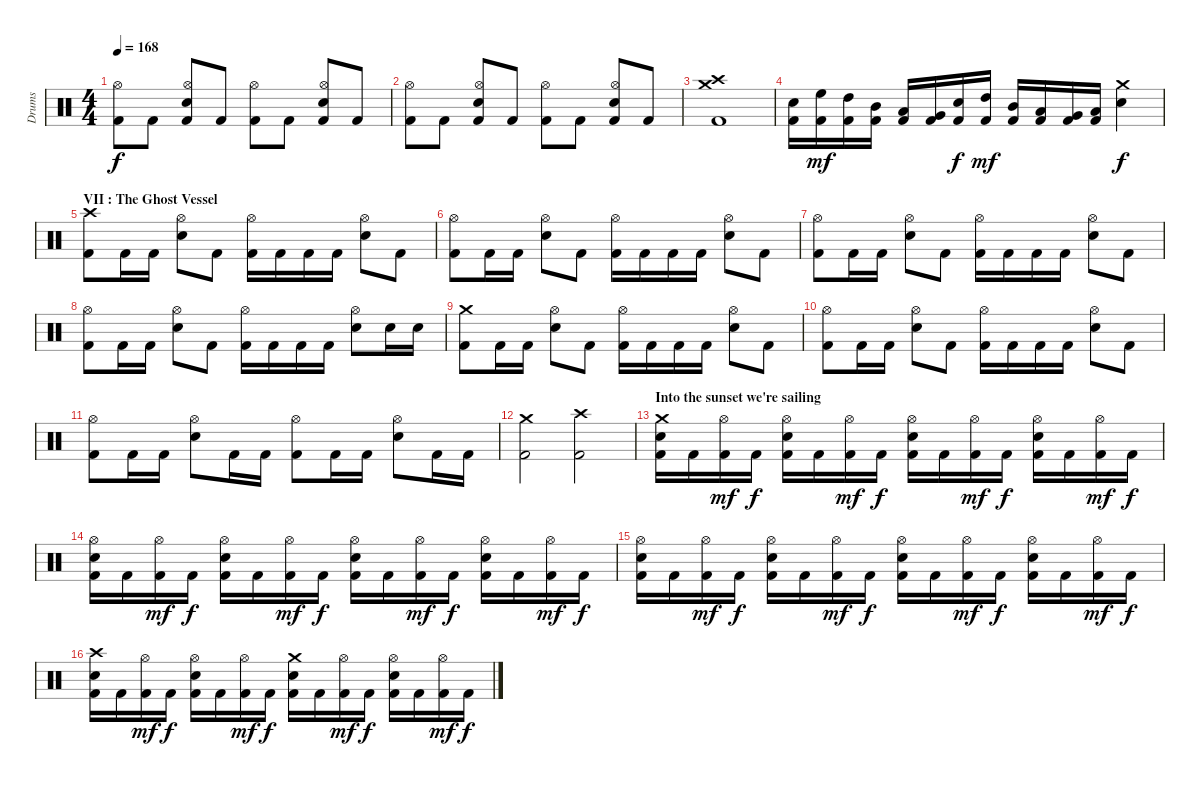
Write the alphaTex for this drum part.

\track ("Drums" "Drums") {instrument percussion}
\staff {score}
\articulation defaults
\ts (4 4)
\tempo 168
\clef neutral
\ks c
("Kick (hit) 2" "Hi-Hat (open)").8{dy f} "Kick (hit) 2".8 ("Kick (hit) 2" "Electric Snare (hit)" "Hi-Hat (open)").8 "Kick (hit) 2".8 ("Kick (hit) 2" "Hi-Hat (open)").8 "Kick (hit) 2".8 ("Kick (hit) 2" "Electric Snare (hit)" "Hi-Hat (open)").8 "Kick (hit) 2".8 |
("Kick (hit) 2" "Hi-Hat (open)").8 "Kick (hit) 2".8 ("Kick (hit) 2" "Electric Snare (hit)" "Hi-Hat (open)").8 "Kick (hit) 2".8 ("Kick (hit) 2" "Hi-Hat (open)").8 "Kick (hit) 2".8 ("Kick (hit) 2" "Electric Snare (hit)" "Hi-Hat (open)").8 "Kick (hit) 2".8 |
("Kick (hit) 2" "Crash medium (hit)" "Crash high (hit)").1 |
("Kick (hit) 2" "Electric Snare (hit)").16 ("Kick (hit) 2" "High Floor Tom (hit)").16{dy mf} ("Kick (hit) 2" "High Tom (hit)").16 ("Kick (hit) 2" "Mid Tom (hit)").16 ("Kick (hit) 2" "Low Tom (hit)").16 ("Kick (hit) 2" "Very Low Tom (hit)").16 ("Kick (hit) 2" "Electric Snare (hit)").16{dy f} ("Kick (hit) 2" "High Tom (hit)").16{dy mf} ("Kick (hit) 2" "Mid Tom (hit)").16 ("Kick (hit) 2" "Low Tom (hit)").16 ("Kick (hit) 2" "Very Low Tom (hit)").16 ("Kick (hit) 2" "Low Floor Tom (hit)").16 ("Electric Snare (hit)" "Crash medium (hit)").4{dy f} |
\section ("" "VII : The Ghost Vessel")
("Kick (hit) 2" "Crash high (hit)").8 "Kick (hit) 2".16 "Kick (hit) 2".16 ("Electric Snare (hit)" "Hi-Hat (open)").8 "Kick (hit) 2".8 ("Kick (hit) 2" "Hi-Hat (open)").16 "Kick (hit) 2".16 "Kick (hit) 2".16 "Kick (hit) 2".16 ("Electric Snare (hit)" "Hi-Hat (open)").8 "Kick (hit) 2".8 |
("Kick (hit) 2" "Hi-Hat (open)").8 "Kick (hit) 2".16 "Kick (hit) 2".16 ("Electric Snare (hit)" "Hi-Hat (open)").8 "Kick (hit) 2".8 ("Kick (hit) 2" "Hi-Hat (open)").16 "Kick (hit) 2".16 "Kick (hit) 2".16 "Kick (hit) 2".16 ("Electric Snare (hit)" "Hi-Hat (open)").8 "Kick (hit) 2".8 |
("Kick (hit) 2" "Hi-Hat (open)").8 "Kick (hit) 2".16 "Kick (hit) 2".16 ("Electric Snare (hit)" "Hi-Hat (open)").8 "Kick (hit) 2".8 ("Kick (hit) 2" "Hi-Hat (open)").16 "Kick (hit) 2".16 "Kick (hit) 2".16 "Kick (hit) 2".16 ("Electric Snare (hit)" "Hi-Hat (open)").8 "Kick (hit) 2".8 |
("Kick (hit) 2" "Hi-Hat (open)").8 "Kick (hit) 2".16 "Kick (hit) 2".16 ("Electric Snare (hit)" "Hi-Hat (open)").8 "Kick (hit) 2".8 ("Kick (hit) 2" "Hi-Hat (open)").16 "Kick (hit) 2".16 "Kick (hit) 2".16 "Kick (hit) 2".16 ("Electric Snare (hit)" "Hi-Hat (open)").8 "Electric Snare (hit)".16 "Electric Snare (hit)".16 |
("Kick (hit) 2" "Crash medium (hit)").8 "Kick (hit) 2".16 "Kick (hit) 2".16 ("Electric Snare (hit)" "Hi-Hat (open)").8 "Kick (hit) 2".8 ("Kick (hit) 2" "Hi-Hat (open)").16 "Kick (hit) 2".16 "Kick (hit) 2".16 "Kick (hit) 2".16 ("Electric Snare (hit)" "Hi-Hat (open)").8 "Kick (hit) 2".8 |
("Kick (hit) 2" "Hi-Hat (open)").8 "Kick (hit) 2".16 "Kick (hit) 2".16 ("Electric Snare (hit)" "Hi-Hat (open)").8 "Kick (hit) 2".8 ("Kick (hit) 2" "Hi-Hat (open)").16 "Kick (hit) 2".16 "Kick (hit) 2".16 "Kick (hit) 2".16 ("Electric Snare (hit)" "Hi-Hat (open)").8 "Kick (hit) 2".8 |
("Kick (hit) 2" "Hi-Hat (open)").8 "Kick (hit) 2".16 "Kick (hit) 2".16 ("Electric Snare (hit)" "Hi-Hat (open)").8 "Kick (hit) 2".16 "Kick (hit) 2".16 ("Kick (hit) 2" "Hi-Hat (open)").8 "Kick (hit) 2".16 "Kick (hit) 2".16 ("Electric Snare (hit)" "Hi-Hat (open)").8 "Kick (hit) 2".16 "Kick (hit) 2".16 |
("Kick (hit) 2" "Crash medium (hit)").2 ("Kick (hit) 2" "Crash high (hit)").2 |
\section ("" "Into the sunset we're sailing")
("Kick (hit) 2" "Electric Snare (hit)" "Crash medium (hit)").16 "Kick (hit) 2".16 ("Kick (hit) 2" "Hi-Hat (open)").16{dy mf} "Kick (hit) 2".16{dy f} ("Kick (hit) 2" "Electric Snare (hit)" "Hi-Hat (open)").16 "Kick (hit) 2".16 ("Kick (hit) 2" "Hi-Hat (open)").16{dy mf} "Kick (hit) 2".16{dy f} ("Kick (hit) 2" "Electric Snare (hit)" "Hi-Hat (open)").16 "Kick (hit) 2".16 ("Kick (hit) 2" "Hi-Hat (open)").16{dy mf} "Kick (hit) 2".16{dy f} ("Kick (hit) 2" "Electric Snare (hit)" "Hi-Hat (open)").16 "Kick (hit) 2".16 ("Kick (hit) 2" "Hi-Hat (open)").16{dy mf} "Kick (hit) 2".16{dy f} |
("Kick (hit) 2" "Electric Snare (hit)" "Hi-Hat (open)").16 "Kick (hit) 2".16 ("Kick (hit) 2" "Hi-Hat (open)").16{dy mf} "Kick (hit) 2".16{dy f} ("Kick (hit) 2" "Electric Snare (hit)" "Hi-Hat (open)").16 "Kick (hit) 2".16 ("Kick (hit) 2" "Hi-Hat (open)").16{dy mf} "Kick (hit) 2".16{dy f} ("Kick (hit) 2" "Electric Snare (hit)" "Hi-Hat (open)").16 "Kick (hit) 2".16 ("Kick (hit) 2" "Hi-Hat (open)").16{dy mf} "Kick (hit) 2".16{dy f} ("Kick (hit) 2" "Electric Snare (hit)" "Hi-Hat (open)").16 "Kick (hit) 2".16 ("Kick (hit) 2" "Hi-Hat (open)").16{dy mf} "Kick (hit) 2".16{dy f} |
("Kick (hit) 2" "Electric Snare (hit)" "Hi-Hat (open)").16 "Kick (hit) 2".16 ("Kick (hit) 2" "Hi-Hat (open)").16{dy mf} "Kick (hit) 2".16{dy f} ("Kick (hit) 2" "Electric Snare (hit)" "Hi-Hat (open)").16 "Kick (hit) 2".16 ("Kick (hit) 2" "Hi-Hat (open)").16{dy mf} "Kick (hit) 2".16{dy f} ("Kick (hit) 2" "Electric Snare (hit)" "Hi-Hat (open)").16 "Kick (hit) 2".16 ("Kick (hit) 2" "Hi-Hat (open)").16{dy mf} "Kick (hit) 2".16{dy f} ("Kick (hit) 2" "Electric Snare (hit)" "Hi-Hat (open)").16 "Kick (hit) 2".16 ("Kick (hit) 2" "Hi-Hat (open)").16{dy mf} "Kick (hit) 2".16{dy f} |
("Kick (hit) 2" "Electric Snare (hit)" "Crash high (hit)").16 "Kick (hit) 2".16 ("Kick (hit) 2" "Hi-Hat (open)").16{dy mf} "Kick (hit) 2".16{dy f} ("Kick (hit) 2" "Electric Snare (hit)" "Hi-Hat (open)").16 "Kick (hit) 2".16 ("Kick (hit) 2" "Hi-Hat (open)").16{dy mf} "Kick (hit) 2".16{dy f} ("Kick (hit) 2" "Electric Snare (hit)" "Crash medium (hit)").16 "Kick (hit) 2".16 ("Kick (hit) 2" "Hi-Hat (open)").16{dy mf} "Kick (hit) 2".16{dy f} ("Kick (hit) 2" "Electric Snare (hit)" "Hi-Hat (open)").16 "Kick (hit) 2".16 ("Kick (hit) 2" "Hi-Hat (open)").16{dy mf} "Kick (hit) 2".16{dy f}
